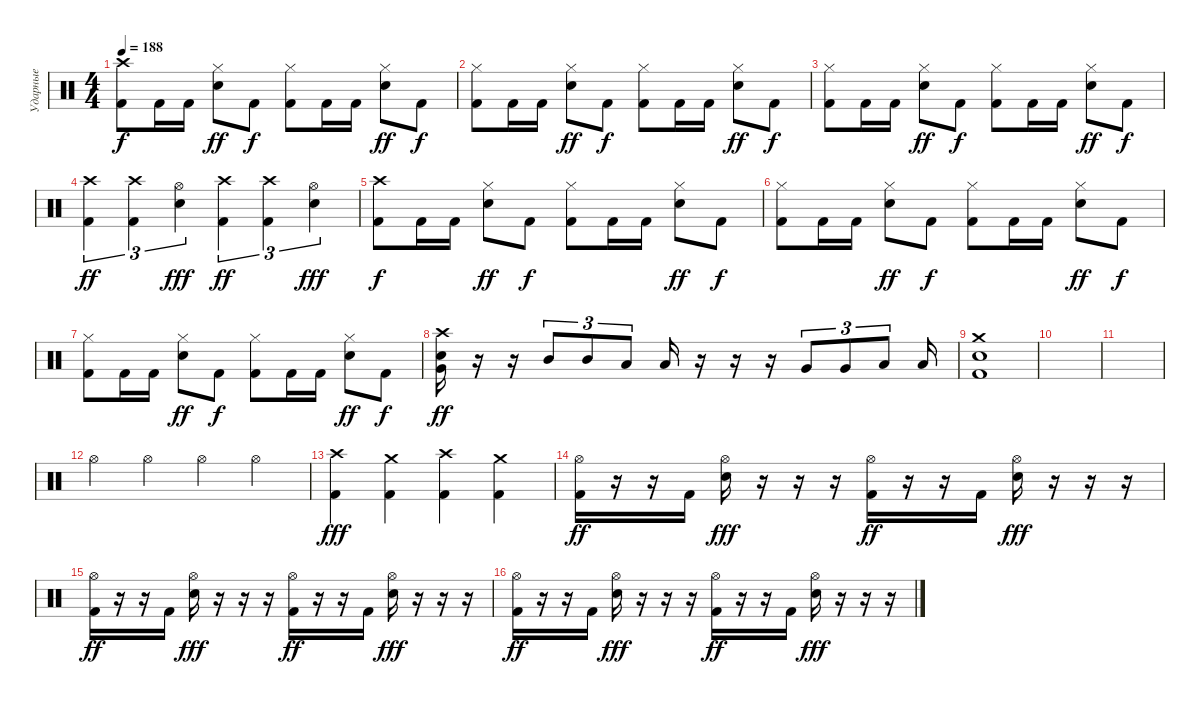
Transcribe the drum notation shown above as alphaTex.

\track ("Ударные" "Ударные") {instrument percussion}
\staff {score}
\articulation defaults
\ts (4 4)
\tempo 188
\clef neutral
\ks c
("Crash high (hit)" "Kick (hit) 2").8{dy f} "Kick (hit) 2".16 "Kick (hit) 2".16 ("Hi-Hat (closed)" "Electric Snare (hit)").8{dy ff} "Kick (hit) 2".8{dy f} ("Hi-Hat (closed)" "Kick (hit) 2").8 "Kick (hit) 2".16 "Kick (hit) 2".16 ("Hi-Hat (closed)" "Electric Snare (hit)").8{dy ff} "Kick (hit) 2".8{dy f} |
("Hi-Hat (closed)" "Kick (hit) 2").8 "Kick (hit) 2".16 "Kick (hit) 2".16 ("Hi-Hat (closed)" "Electric Snare (hit)").8{dy ff} "Kick (hit) 2".8{dy f} ("Hi-Hat (closed)" "Kick (hit) 2").8 "Kick (hit) 2".16 "Kick (hit) 2".16 ("Hi-Hat (closed)" "Electric Snare (hit)").8{dy ff} "Kick (hit) 2".8{dy f} |
("Hi-Hat (closed)" "Kick (hit) 2").8 "Kick (hit) 2".16 "Kick (hit) 2".16 ("Hi-Hat (closed)" "Electric Snare (hit)").8{dy ff} "Kick (hit) 2".8{dy f} ("Hi-Hat (closed)" "Kick (hit) 2").8 "Kick (hit) 2".16 "Kick (hit) 2".16 ("Hi-Hat (closed)" "Electric Snare (hit)").8{dy ff} "Kick (hit) 2".8{dy f} |
("Crash high (hit)" "Kick (hit) 2").4{tu (3 2) dy ff} ("Crash high (hit)" "Kick (hit) 2").4{tu (3 2)} ("Hi-Hat (open)" "Electric Snare (hit)").4{tu (3 2) dy fff} ("Crash high (hit)" "Kick (hit) 2").4{tu (3 2) dy ff} ("Crash high (hit)" "Kick (hit) 2").4{tu (3 2)} ("Hi-Hat (open)" "Electric Snare (hit)").4{tu (3 2) dy fff} |
("Crash high (hit)" "Kick (hit) 2").8{dy f} "Kick (hit) 2".16 "Kick (hit) 2".16 ("Hi-Hat (closed)" "Electric Snare (hit)").8{dy ff} "Kick (hit) 2".8{dy f} ("Hi-Hat (closed)" "Kick (hit) 2").8 "Kick (hit) 2".16 "Kick (hit) 2".16 ("Hi-Hat (closed)" "Electric Snare (hit)").8{dy ff} "Kick (hit) 2".8{dy f} |
("Hi-Hat (closed)" "Kick (hit) 2").8 "Kick (hit) 2".16 "Kick (hit) 2".16 ("Hi-Hat (closed)" "Electric Snare (hit)").8{dy ff} "Kick (hit) 2".8{dy f} ("Hi-Hat (closed)" "Kick (hit) 2").8 "Kick (hit) 2".16 "Kick (hit) 2".16 ("Hi-Hat (closed)" "Electric Snare (hit)").8{dy ff} "Kick (hit) 2".8{dy f} |
("Hi-Hat (closed)" "Kick (hit) 2").8 "Kick (hit) 2".16 "Kick (hit) 2".16 ("Hi-Hat (closed)" "Electric Snare (hit)").8{dy ff} "Kick (hit) 2".8{dy f} ("Hi-Hat (closed)" "Kick (hit) 2").8 "Kick (hit) 2".16 "Kick (hit) 2".16 ("Hi-Hat (closed)" "Electric Snare (hit)").8{dy ff} "Kick (hit) 2".8{dy f} |
("Crash high (hit)" "Electric Snare (hit)" "Very Low Tom (hit)").16{dy ff} r.16 r.16 "Mid Tom (hit)".8{tu (3 2)} "Mid Tom (hit)".8{tu (3 2)} "Low Tom (hit)".8{tu (3 2)} "Low Tom (hit)".16 r.16 r.16 r.16 "Very Low Tom (hit)".8{tu (3 2)} "Very Low Tom (hit)".8{tu (3 2)} "Low Floor Tom (hit)".8{tu (3 2)} "Low Floor Tom (hit)".16 |
("Crash medium (hit)" "Electric Snare (hit)" "Kick (hit) 2").1 |
|
|
"Hi-Hat (open)".4 "Hi-Hat (open)".4 "Hi-Hat (open)".4 "Hi-Hat (open)".4 |
("Crash high (hit)" "Kick (hit) 2").4{dy fff} ("Crash medium (hit)" "Kick (hit) 2").4 ("Crash high (hit)" "Kick (hit) 2").4 ("Crash medium (hit)" "Kick (hit) 2").4 |
("Hi-Hat (open)" "Kick (hit) 2").16{dy ff} r.16 r.16 "Kick (hit) 2".16 ("Hi-Hat (open)" "Electric Snare (hit)").16{dy fff} r.16 r.16 r.16 ("Hi-Hat (open)" "Kick (hit) 2").16{dy ff} r.16 r.16 "Kick (hit) 2".16 ("Hi-Hat (open)" "Electric Snare (hit)").16{dy fff} r.16 r.16 r.16 |
("Hi-Hat (open)" "Kick (hit) 2").16{dy ff} r.16 r.16 "Kick (hit) 2".16 ("Hi-Hat (open)" "Electric Snare (hit)").16{dy fff} r.16 r.16 r.16 ("Hi-Hat (open)" "Kick (hit) 2").16{dy ff} r.16 r.16 "Kick (hit) 2".16 ("Hi-Hat (open)" "Electric Snare (hit)").16{dy fff} r.16 r.16 r.16 |
("Hi-Hat (open)" "Kick (hit) 2").16{dy ff} r.16 r.16 "Kick (hit) 2".16 ("Hi-Hat (open)" "Electric Snare (hit)").16{dy fff} r.16 r.16 r.16 ("Hi-Hat (open)" "Kick (hit) 2").16{dy ff} r.16 r.16 "Kick (hit) 2".16 ("Hi-Hat (open)" "Electric Snare (hit)").16{dy fff} r.16 r.16 r.16
